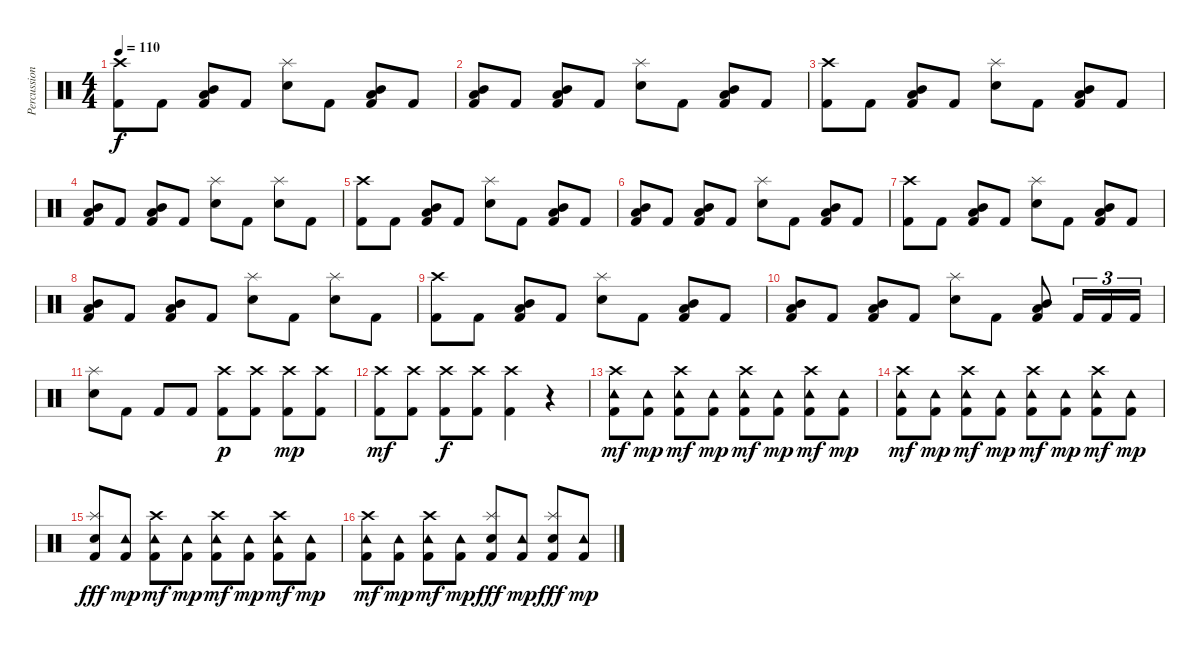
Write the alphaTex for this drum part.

\track ("Percussion" "Percussion") {instrument percussion}
\staff {score}
\articulation defaults
\ts (4 4)
\tempo 110
\clef neutral
\ks c
("Crash high (hit)" "Kick (hit) 2").8{dy f} "Kick (hit) 2".8 ("Mid Tom (hit)" "Low Tom (hit)" "Kick (hit) 2").8 "Kick (hit) 2".8 ("Splash (hit)" "Snare (hit) 2").8 "Kick (hit) 2".8 ("Mid Tom (hit)" "Low Tom (hit)" "Kick (hit) 2").8 "Kick (hit) 2".8 |
("Mid Tom (hit)" "Low Tom (hit)" "Kick (hit) 2").8 "Kick (hit) 2".8 ("Mid Tom (hit)" "Low Tom (hit)" "Kick (hit) 2").8 "Kick (hit) 2".8 ("Splash (hit)" "Snare (hit) 2").8 "Kick (hit) 2".8 ("Mid Tom (hit)" "Low Tom (hit)" "Kick (hit) 2").8 "Kick (hit) 2".8 |
("Crash high (hit)" "Kick (hit) 2").8 "Kick (hit) 2".8 ("Mid Tom (hit)" "Low Tom (hit)" "Kick (hit) 2").8 "Kick (hit) 2".8 ("Splash (hit)" "Snare (hit) 2").8 "Kick (hit) 2".8 ("Mid Tom (hit)" "Low Tom (hit)" "Kick (hit) 2").8 "Kick (hit) 2".8 |
("Mid Tom (hit)" "Low Tom (hit)" "Kick (hit) 2").8 "Kick (hit) 2".8 ("Mid Tom (hit)" "Low Tom (hit)" "Kick (hit) 2").8 "Kick (hit) 2".8 ("Splash (hit)" "Snare (hit) 2").8 "Kick (hit) 2".8 ("Splash (hit)" "Snare (hit) 2").8 "Kick (hit) 2".8 |
("Crash high (hit)" "Kick (hit) 2").8 "Kick (hit) 2".8 ("Mid Tom (hit)" "Low Tom (hit)" "Kick (hit) 2").8 "Kick (hit) 2".8 ("Splash (hit)" "Snare (hit) 2").8 "Kick (hit) 2".8 ("Mid Tom (hit)" "Low Tom (hit)" "Kick (hit) 2").8 "Kick (hit) 2".8 |
("Mid Tom (hit)" "Low Tom (hit)" "Kick (hit) 2").8 "Kick (hit) 2".8 ("Mid Tom (hit)" "Low Tom (hit)" "Kick (hit) 2").8 "Kick (hit) 2".8 ("Splash (hit)" "Snare (hit) 2").8 "Kick (hit) 2".8 ("Mid Tom (hit)" "Low Tom (hit)" "Kick (hit) 2").8 "Kick (hit) 2".8 |
("Crash high (hit)" "Kick (hit) 2").8 "Kick (hit) 2".8 ("Mid Tom (hit)" "Low Tom (hit)" "Kick (hit) 2").8 "Kick (hit) 2".8 ("Splash (hit)" "Snare (hit) 2").8 "Kick (hit) 2".8 ("Mid Tom (hit)" "Low Tom (hit)" "Kick (hit) 2").8 "Kick (hit) 2".8 |
("Mid Tom (hit)" "Low Tom (hit)" "Kick (hit) 2").8 "Kick (hit) 2".8 ("Mid Tom (hit)" "Low Tom (hit)" "Kick (hit) 2").8 "Kick (hit) 2".8 ("Splash (hit)" "Snare (hit) 2").8 "Kick (hit) 2".8 ("Splash (hit)" "Snare (hit) 2").8 "Kick (hit) 2".8 |
("Crash high (hit)" "Kick (hit) 2").8 "Kick (hit) 2".8 ("Mid Tom (hit)" "Low Tom (hit)" "Kick (hit) 2").8 "Kick (hit) 2".8 ("Splash (hit)" "Snare (hit) 2").8 "Kick (hit) 2".8 ("Mid Tom (hit)" "Low Tom (hit)" "Kick (hit) 2").8 "Kick (hit) 2".8 |
("Mid Tom (hit)" "Low Tom (hit)" "Kick (hit) 2").8 "Kick (hit) 2".8 ("Mid Tom (hit)" "Low Tom (hit)" "Kick (hit) 2").8 "Kick (hit) 2".8 ("Splash (hit)" "Snare (hit) 2").8 "Kick (hit) 2".8 ("Mid Tom (hit)" "Low Tom (hit)" "Kick (hit) 2").8 "Kick (hit) 2".16{tu (3 2)} "Kick (hit) 2".16{tu (3 2)} "Kick (hit) 2".16{tu (3 2)} |
("Splash (hit)" "Snare (hit) 2").8 "Kick (hit) 2".8 "Kick (hit) 2".8 "Kick (hit) 2".8 ("Crash high (hit)" "Kick (hit) 2").8{dy p} ("Crash high (hit)" "Kick (hit) 2").8 ("Crash high (hit)" "Kick (hit) 2").8{dy mp} ("Crash high (hit)" "Kick (hit) 2").8 |
("Crash high (hit)" "Kick (hit) 2").8{dy mf} ("Crash high (hit)" "Kick (hit) 2").8 ("Crash high (hit)" "Kick (hit) 2").8{dy f} ("Crash high (hit)" "Kick (hit) 2").8 ("Crash high (hit)" "Kick (hit) 2").4 r.4 |
("Crash high (hit)" "Tambourine (hit)" "Kick (hit) 2").8{dy mf} ("Tambourine (hit)" "Kick (hit) 2").8{dy mp} ("Crash high (hit)" "Tambourine (hit)" "Kick (hit) 2").8{dy mf} ("Tambourine (hit)" "Kick (hit) 2").8{dy mp} ("Crash high (hit)" "Tambourine (hit)" "Kick (hit) 2").8{dy mf} ("Tambourine (hit)" "Kick (hit) 2").8{dy mp} ("Crash high (hit)" "Tambourine (hit)" "Kick (hit) 2").8{dy mf} ("Tambourine (hit)" "Kick (hit) 2").8{dy mp} |
("Crash high (hit)" "Tambourine (hit)" "Kick (hit) 2").8{dy mf} ("Tambourine (hit)" "Kick (hit) 2").8{dy mp} ("Crash high (hit)" "Tambourine (hit)" "Kick (hit) 2").8{dy mf} ("Tambourine (hit)" "Kick (hit) 2").8{dy mp} ("Crash high (hit)" "Tambourine (hit)" "Kick (hit) 2").8{dy mf} ("Tambourine (hit)" "Kick (hit) 2").8{dy mp} ("Crash high (hit)" "Tambourine (hit)" "Kick (hit) 2").8{dy mf} ("Tambourine (hit)" "Kick (hit) 2").8{dy mp} |
("Splash (hit)" "Snare (hit) 2" "Kick (hit) 2").8{dy fff} ("Tambourine (hit)" "Kick (hit) 2").8{dy mp} ("Crash high (hit)" "Tambourine (hit)" "Kick (hit) 2").8{dy mf} ("Tambourine (hit)" "Kick (hit) 2").8{dy mp} ("Crash high (hit)" "Tambourine (hit)" "Kick (hit) 2").8{dy mf} ("Tambourine (hit)" "Kick (hit) 2").8{dy mp} ("Crash high (hit)" "Tambourine (hit)" "Kick (hit) 2").8{dy mf} ("Tambourine (hit)" "Kick (hit) 2").8{dy mp} |
("Crash high (hit)" "Tambourine (hit)" "Kick (hit) 2").8{dy mf} ("Tambourine (hit)" "Kick (hit) 2").8{dy mp} ("Crash high (hit)" "Tambourine (hit)" "Kick (hit) 2").8{dy mf} ("Tambourine (hit)" "Kick (hit) 2").8{dy mp} ("Splash (hit)" "Snare (hit) 2" "Kick (hit) 2").8{dy fff} ("Tambourine (hit)" "Kick (hit) 2").8{dy mp} ("Splash (hit)" "Snare (hit) 2" "Kick (hit) 2").8{dy fff} ("Tambourine (hit)" "Kick (hit) 2").8{dy mp}
